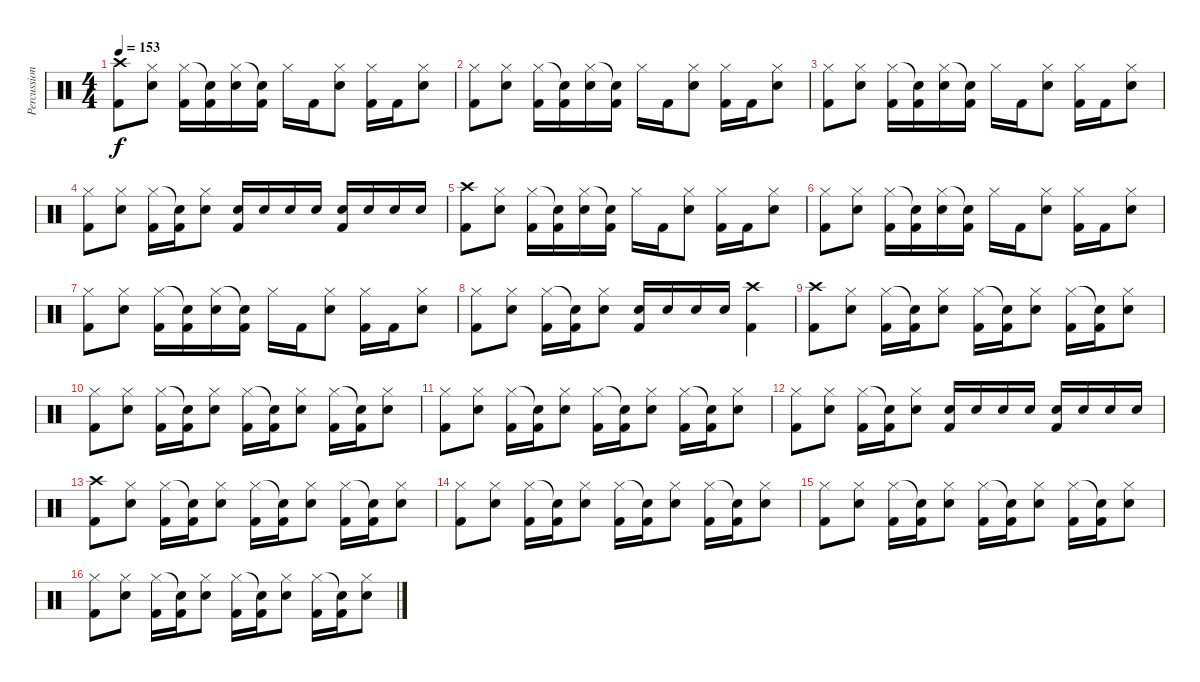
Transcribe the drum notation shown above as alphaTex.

\track ("Percussion" "Percussion") {instrument percussion}
\staff {score}
\articulation defaults
\ts (4 4)
\tempo 153
\clef neutral
\ks c
("Crash high (hit)" "Kick (hit) 2").8{dy f} ("Hi-Hat (closed)" "Snare (hit) 2").8 ("Hi-Hat (closed)" "Kick (hit) 2").16 ("Snare (hit)"{t} "Kick (hit) 2").16 ("Hi-Hat (closed)" "Snare (hit) 2").16 ("Snare (hit)"{t} "Kick (hit) 2").16 "Hi-Hat (closed)".16 "Kick (hit) 2".16 ("Hi-Hat (closed)" "Snare (hit) 2").8 ("Hi-Hat (closed)" "Kick (hit) 2").16 "Kick (hit) 2".16 ("Hi-Hat (closed)" "Snare (hit) 2").8 |
("Hi-Hat (closed)" "Kick (hit) 2").8 ("Hi-Hat (closed)" "Snare (hit) 2").8 ("Hi-Hat (closed)" "Kick (hit) 2").16 ("Snare (hit)"{t} "Kick (hit) 2").16 ("Hi-Hat (closed)" "Snare (hit) 2").16 ("Snare (hit)"{t} "Kick (hit) 2").16 "Hi-Hat (closed)".16 "Kick (hit) 2".16 ("Hi-Hat (closed)" "Snare (hit) 2").8 ("Hi-Hat (closed)" "Kick (hit) 2").16 "Kick (hit) 2".16 ("Hi-Hat (closed)" "Snare (hit) 2").8 |
("Hi-Hat (closed)" "Kick (hit) 2").8 ("Hi-Hat (closed)" "Snare (hit) 2").8 ("Hi-Hat (closed)" "Kick (hit) 2").16 ("Snare (hit)"{t} "Kick (hit) 2").16 ("Hi-Hat (closed)" "Snare (hit) 2").16 ("Snare (hit)"{t} "Kick (hit) 2").16 "Hi-Hat (closed)".16 "Kick (hit) 2".16 ("Hi-Hat (closed)" "Snare (hit) 2").8 ("Hi-Hat (closed)" "Kick (hit) 2").16 "Kick (hit) 2".16 ("Hi-Hat (closed)" "Snare (hit) 2").8 |
("Hi-Hat (closed)" "Kick (hit) 2").8 ("Hi-Hat (closed)" "Snare (hit) 2").8 ("Hi-Hat (closed)" "Kick (hit) 2").16 ("Snare (hit)"{t} "Kick (hit) 2").16 ("Hi-Hat (closed)" "Snare (hit) 2").8 ("Snare (hit) 2" "Kick (hit) 2").16 "Snare (hit) 2".16 "Snare (hit) 2".16 "Snare (hit) 2".16 ("Snare (hit) 2" "Kick (hit) 2").16 "Snare (hit) 2".16 "Snare (hit) 2".16 "Snare (hit) 2".16 |
("Crash high (hit)" "Kick (hit) 2").8 ("Hi-Hat (closed)" "Snare (hit) 2").8 ("Hi-Hat (closed)" "Kick (hit) 2").16 ("Snare (hit)"{t} "Kick (hit) 2").16 ("Hi-Hat (closed)" "Snare (hit) 2").16 ("Snare (hit)"{t} "Kick (hit) 2").16 "Hi-Hat (closed)".16 "Kick (hit) 2".16 ("Hi-Hat (closed)" "Snare (hit) 2").8 ("Hi-Hat (closed)" "Kick (hit) 2").16 "Kick (hit) 2".16 ("Hi-Hat (closed)" "Snare (hit) 2").8 |
("Hi-Hat (closed)" "Kick (hit) 2").8 ("Hi-Hat (closed)" "Snare (hit) 2").8 ("Hi-Hat (closed)" "Kick (hit) 2").16 ("Snare (hit)"{t} "Kick (hit) 2").16 ("Hi-Hat (closed)" "Snare (hit) 2").16 ("Snare (hit)"{t} "Kick (hit) 2").16 "Hi-Hat (closed)".16 "Kick (hit) 2".16 ("Hi-Hat (closed)" "Snare (hit) 2").8 ("Hi-Hat (closed)" "Kick (hit) 2").16 "Kick (hit) 2".16 ("Hi-Hat (closed)" "Snare (hit) 2").8 |
("Hi-Hat (closed)" "Kick (hit) 2").8 ("Hi-Hat (closed)" "Snare (hit) 2").8 ("Hi-Hat (closed)" "Kick (hit) 2").16 ("Snare (hit)"{t} "Kick (hit) 2").16 ("Hi-Hat (closed)" "Snare (hit) 2").16 ("Snare (hit)"{t} "Kick (hit) 2").16 "Hi-Hat (closed)".16 "Kick (hit) 2".16 ("Hi-Hat (closed)" "Snare (hit) 2").8 ("Hi-Hat (closed)" "Kick (hit) 2").16 "Kick (hit) 2".16 ("Hi-Hat (closed)" "Snare (hit) 2").8 |
("Hi-Hat (closed)" "Kick (hit) 2").8 ("Hi-Hat (closed)" "Snare (hit) 2").8 ("Hi-Hat (closed)" "Kick (hit) 2").16 ("Snare (hit)"{t} "Kick (hit) 2").16 ("Hi-Hat (closed)" "Snare (hit) 2").8 ("Snare (hit) 2" "Kick (hit) 2").16 "Snare (hit) 2".16 "Snare (hit) 2".16 "Snare (hit) 2".16 ("Crash high (hit)" "Kick (hit) 2").4 |
("Crash high (hit)" "Kick (hit) 2").8 ("Hi-Hat (closed)" "Snare (hit) 2").8 ("Hi-Hat (closed)" "Kick (hit) 2").16 ("Snare (hit)"{t} "Kick (hit) 2").16 ("Hi-Hat (closed)" "Snare (hit) 2").8 ("Hi-Hat (closed)" "Kick (hit) 2").16 ("Snare (hit)"{t} "Kick (hit) 2").16 ("Hi-Hat (closed)" "Snare (hit) 2").8 ("Hi-Hat (closed)" "Kick (hit) 2").16 ("Snare (hit)"{t} "Kick (hit) 2").16 ("Hi-Hat (closed)" "Snare (hit) 2").8 |
("Hi-Hat (closed)" "Kick (hit) 2").8 ("Hi-Hat (closed)" "Snare (hit) 2").8 ("Hi-Hat (closed)" "Kick (hit) 2").16 ("Snare (hit)"{t} "Kick (hit) 2").16 ("Hi-Hat (closed)" "Snare (hit) 2").8 ("Hi-Hat (closed)" "Kick (hit) 2").16 ("Snare (hit)"{t} "Kick (hit) 2").16 ("Hi-Hat (closed)" "Snare (hit) 2").8 ("Hi-Hat (closed)" "Kick (hit) 2").16 ("Snare (hit)"{t} "Kick (hit) 2").16 ("Hi-Hat (closed)" "Snare (hit) 2").8 |
("Hi-Hat (closed)" "Kick (hit) 2").8 ("Hi-Hat (closed)" "Snare (hit) 2").8 ("Hi-Hat (closed)" "Kick (hit) 2").16 ("Snare (hit)"{t} "Kick (hit) 2").16 ("Hi-Hat (closed)" "Snare (hit) 2").8 ("Hi-Hat (closed)" "Kick (hit) 2").16 ("Snare (hit)"{t} "Kick (hit) 2").16 ("Hi-Hat (closed)" "Snare (hit) 2").8 ("Hi-Hat (closed)" "Kick (hit) 2").16 ("Snare (hit)"{t} "Kick (hit) 2").16 ("Hi-Hat (closed)" "Snare (hit) 2").8 |
("Hi-Hat (closed)" "Kick (hit) 2").8 ("Hi-Hat (closed)" "Snare (hit) 2").8 ("Hi-Hat (closed)" "Kick (hit) 2").16 ("Snare (hit)"{t} "Kick (hit) 2").16 ("Hi-Hat (closed)" "Snare (hit) 2").8 ("Snare (hit) 2" "Kick (hit) 2").16 "Snare (hit) 2".16 "Snare (hit) 2".16 "Snare (hit) 2".16 ("Snare (hit) 2" "Kick (hit) 2").16 "Snare (hit) 2".16 "Snare (hit) 2".16 "Snare (hit) 2".16 |
("Crash high (hit)" "Kick (hit) 2").8 ("Hi-Hat (closed)" "Snare (hit) 2").8 ("Hi-Hat (closed)" "Kick (hit) 2").16 ("Snare (hit)"{t} "Kick (hit) 2").16 ("Hi-Hat (closed)" "Snare (hit) 2").8 ("Hi-Hat (closed)" "Kick (hit) 2").16 ("Snare (hit)"{t} "Kick (hit) 2").16 ("Hi-Hat (closed)" "Snare (hit) 2").8 ("Hi-Hat (closed)" "Kick (hit) 2").16 ("Snare (hit)"{t} "Kick (hit) 2").16 ("Hi-Hat (closed)" "Snare (hit) 2").8 |
("Hi-Hat (closed)" "Kick (hit) 2").8 ("Hi-Hat (closed)" "Snare (hit) 2").8 ("Hi-Hat (closed)" "Kick (hit) 2").16 ("Snare (hit)"{t} "Kick (hit) 2").16 ("Hi-Hat (closed)" "Snare (hit) 2").8 ("Hi-Hat (closed)" "Kick (hit) 2").16 ("Snare (hit)"{t} "Kick (hit) 2").16 ("Hi-Hat (closed)" "Snare (hit) 2").8 ("Hi-Hat (closed)" "Kick (hit) 2").16 ("Snare (hit)"{t} "Kick (hit) 2").16 ("Hi-Hat (closed)" "Snare (hit) 2").8 |
("Hi-Hat (closed)" "Kick (hit) 2").8 ("Hi-Hat (closed)" "Snare (hit) 2").8 ("Hi-Hat (closed)" "Kick (hit) 2").16 ("Snare (hit)"{t} "Kick (hit) 2").16 ("Hi-Hat (closed)" "Snare (hit) 2").8 ("Hi-Hat (closed)" "Kick (hit) 2").16 ("Snare (hit)"{t} "Kick (hit) 2").16 ("Hi-Hat (closed)" "Snare (hit) 2").8 ("Hi-Hat (closed)" "Kick (hit) 2").16 ("Snare (hit)"{t} "Kick (hit) 2").16 ("Hi-Hat (closed)" "Snare (hit) 2").8 |
("Hi-Hat (closed)" "Kick (hit) 2").8 ("Hi-Hat (closed)" "Snare (hit) 2").8 ("Hi-Hat (closed)" "Kick (hit) 2").16 ("Snare (hit)"{t} "Kick (hit) 2").16 ("Hi-Hat (closed)" "Snare (hit) 2").8 ("Hi-Hat (closed)" "Kick (hit) 2").16 ("Snare (hit)"{t} "Kick (hit) 2").16 ("Hi-Hat (closed)" "Snare (hit) 2").8 ("Hi-Hat (closed)" "Kick (hit) 2").16 ("Snare (hit)"{t} "Kick (hit) 2").16 ("Hi-Hat (closed)" "Snare (hit) 2").8
